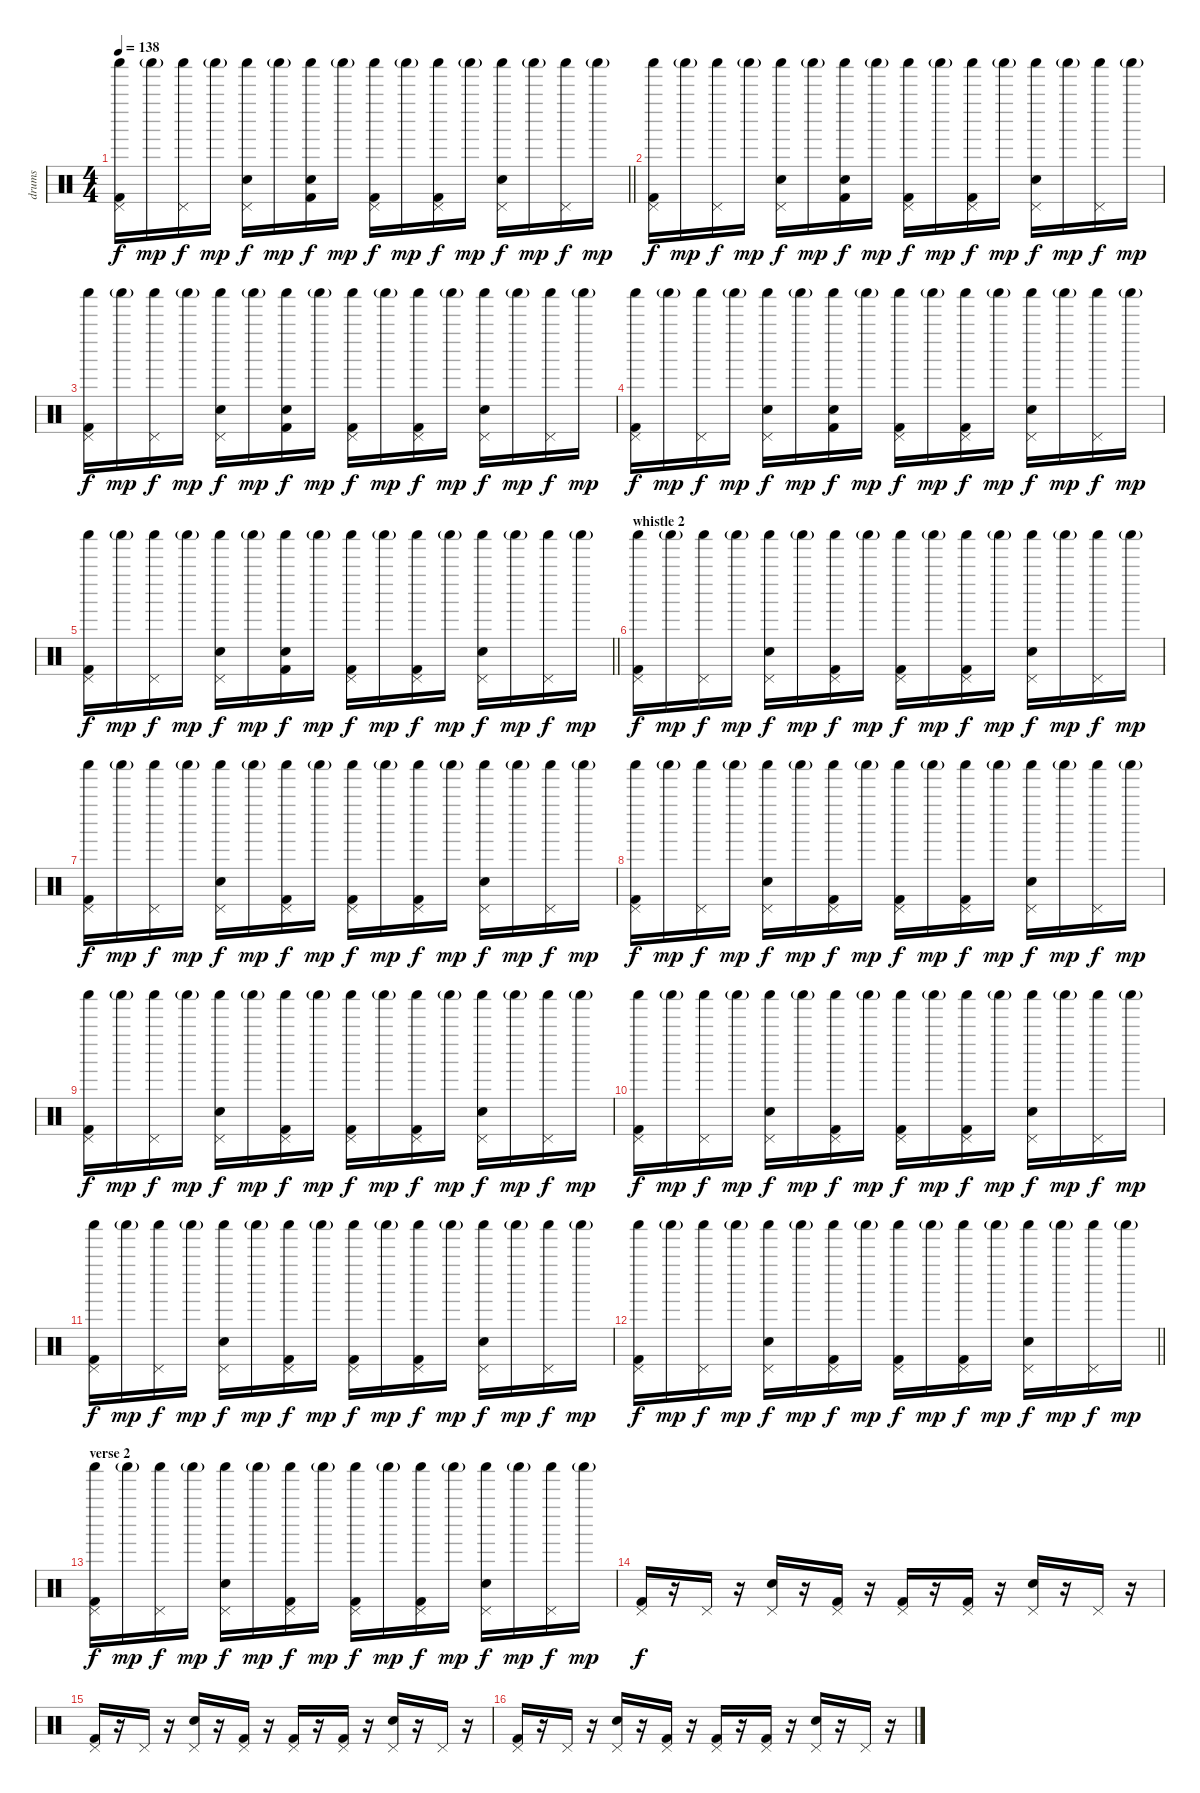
\track ("drums" "drums") {instrument percussion}
\staff {score}
\articulation defaults
\ts (4 4)
\tempo 138
\clef neutral
\barLineRight lightlight
\ks c
("Kick (hit) 2" "Pedal Hi-Hat (hit)" "Shaker (hit)").16{dy f} "Shaker (hit)"{g}.16{dy mp} ("Pedal Hi-Hat (hit)" "Shaker (hit)").16{dy f} "Shaker (hit)"{g}.16{dy mp} ("Electric Snare (hit)" "Pedal Hi-Hat (hit)" "Shaker (hit)").16{dy f} "Shaker (hit)"{g}.16{dy mp} ("Kick (hit) 2" "Snare (hit)" "Shaker (hit)").16{dy f} "Shaker (hit)"{g}.16{dy mp} ("Kick (hit) 2" "Pedal Hi-Hat (hit)" "Shaker (hit)").16{dy f} "Shaker (hit)"{g}.16{dy mp} ("Kick (hit) 2" "Pedal Hi-Hat (hit)" "Shaker (hit)").16{dy f} "Shaker (hit)"{g}.16{dy mp} ("Electric Snare (hit)" "Pedal Hi-Hat (hit)" "Shaker (hit)").16{dy f} "Shaker (hit)"{g}.16{dy mp} ("Pedal Hi-Hat (hit)" "Shaker (hit)").16{dy f} "Shaker (hit)"{g}.16{dy mp} |
("Kick (hit) 2" "Pedal Hi-Hat (hit)" "Shaker (hit)").16{dy f} "Shaker (hit)"{g}.16{dy mp} ("Pedal Hi-Hat (hit)" "Shaker (hit)").16{dy f} "Shaker (hit)"{g}.16{dy mp} ("Electric Snare (hit)" "Pedal Hi-Hat (hit)" "Shaker (hit)").16{dy f} "Shaker (hit)"{g}.16{dy mp} ("Kick (hit) 2" "Snare (hit)" "Shaker (hit)").16{dy f} "Shaker (hit)"{g}.16{dy mp} ("Kick (hit) 2" "Pedal Hi-Hat (hit)" "Shaker (hit)").16{dy f} "Shaker (hit)"{g}.16{dy mp} ("Kick (hit) 2" "Pedal Hi-Hat (hit)" "Shaker (hit)").16{dy f} "Shaker (hit)"{g}.16{dy mp} ("Electric Snare (hit)" "Pedal Hi-Hat (hit)" "Shaker (hit)").16{dy f} "Shaker (hit)"{g}.16{dy mp} ("Pedal Hi-Hat (hit)" "Shaker (hit)").16{dy f} "Shaker (hit)"{g}.16{dy mp} |
("Kick (hit) 2" "Pedal Hi-Hat (hit)" "Shaker (hit)").16{dy f} "Shaker (hit)"{g}.16{dy mp} ("Pedal Hi-Hat (hit)" "Shaker (hit)").16{dy f} "Shaker (hit)"{g}.16{dy mp} ("Electric Snare (hit)" "Pedal Hi-Hat (hit)" "Shaker (hit)").16{dy f} "Shaker (hit)"{g}.16{dy mp} ("Kick (hit) 2" "Snare (hit)" "Shaker (hit)").16{dy f} "Shaker (hit)"{g}.16{dy mp} ("Kick (hit) 2" "Pedal Hi-Hat (hit)" "Shaker (hit)").16{dy f} "Shaker (hit)"{g}.16{dy mp} ("Kick (hit) 2" "Pedal Hi-Hat (hit)" "Shaker (hit)").16{dy f} "Shaker (hit)"{g}.16{dy mp} ("Electric Snare (hit)" "Pedal Hi-Hat (hit)" "Shaker (hit)").16{dy f} "Shaker (hit)"{g}.16{dy mp} ("Pedal Hi-Hat (hit)" "Shaker (hit)").16{dy f} "Shaker (hit)"{g}.16{dy mp} |
("Kick (hit) 2" "Pedal Hi-Hat (hit)" "Shaker (hit)").16{dy f} "Shaker (hit)"{g}.16{dy mp} ("Pedal Hi-Hat (hit)" "Shaker (hit)").16{dy f} "Shaker (hit)"{g}.16{dy mp} ("Electric Snare (hit)" "Pedal Hi-Hat (hit)" "Shaker (hit)").16{dy f} "Shaker (hit)"{g}.16{dy mp} ("Kick (hit) 2" "Snare (hit)" "Shaker (hit)").16{dy f} "Shaker (hit)"{g}.16{dy mp} ("Kick (hit) 2" "Pedal Hi-Hat (hit)" "Shaker (hit)").16{dy f} "Shaker (hit)"{g}.16{dy mp} ("Kick (hit) 2" "Pedal Hi-Hat (hit)" "Shaker (hit)").16{dy f} "Shaker (hit)"{g}.16{dy mp} ("Electric Snare (hit)" "Pedal Hi-Hat (hit)" "Shaker (hit)").16{dy f} "Shaker (hit)"{g}.16{dy mp} ("Pedal Hi-Hat (hit)" "Shaker (hit)").16{dy f} "Shaker (hit)"{g}.16{dy mp} |
\barLineRight lightlight
("Kick (hit) 2" "Pedal Hi-Hat (hit)" "Shaker (hit)").16{dy f} "Shaker (hit)"{g}.16{dy mp} ("Pedal Hi-Hat (hit)" "Shaker (hit)").16{dy f} "Shaker (hit)"{g}.16{dy mp} ("Electric Snare (hit)" "Pedal Hi-Hat (hit)" "Shaker (hit)").16{dy f} "Shaker (hit)"{g}.16{dy mp} ("Kick (hit) 2" "Snare (hit)" "Shaker (hit)").16{dy f} "Shaker (hit)"{g}.16{dy mp} ("Kick (hit) 2" "Pedal Hi-Hat (hit)" "Shaker (hit)").16{dy f} "Shaker (hit)"{g}.16{dy mp} ("Kick (hit) 2" "Pedal Hi-Hat (hit)" "Shaker (hit)").16{dy f} "Shaker (hit)"{g}.16{dy mp} ("Electric Snare (hit)" "Pedal Hi-Hat (hit)" "Shaker (hit)").16{dy f} "Shaker (hit)"{g}.16{dy mp} ("Pedal Hi-Hat (hit)" "Shaker (hit)").16{dy f} "Shaker (hit)"{g}.16{dy mp} |
\section ("" "whistle 2")
("Kick (hit) 2" "Pedal Hi-Hat (hit)" "Shaker (hit)").16{dy f} "Shaker (hit)"{g}.16{dy mp} ("Pedal Hi-Hat (hit)" "Shaker (hit)").16{dy f} "Shaker (hit)"{g}.16{dy mp} ("Electric Snare (hit)" "Pedal Hi-Hat (hit)" "Shaker (hit)").16{dy f} "Shaker (hit)"{g}.16{dy mp} ("Kick (hit) 2" "Pedal Hi-Hat (hit)" "Shaker (hit)").16{dy f} "Shaker (hit)"{g}.16{dy mp} ("Kick (hit) 2" "Pedal Hi-Hat (hit)" "Shaker (hit)").16{dy f} "Shaker (hit)"{g}.16{dy mp} ("Kick (hit) 2" "Pedal Hi-Hat (hit)" "Shaker (hit)").16{dy f} "Shaker (hit)"{g}.16{dy mp} ("Electric Snare (hit)" "Pedal Hi-Hat (hit)" "Shaker (hit)").16{dy f} "Shaker (hit)"{g}.16{dy mp} ("Pedal Hi-Hat (hit)" "Shaker (hit)").16{dy f} "Shaker (hit)"{g}.16{dy mp} |
("Kick (hit) 2" "Pedal Hi-Hat (hit)" "Shaker (hit)").16{dy f} "Shaker (hit)"{g}.16{dy mp} ("Pedal Hi-Hat (hit)" "Shaker (hit)").16{dy f} "Shaker (hit)"{g}.16{dy mp} ("Electric Snare (hit)" "Pedal Hi-Hat (hit)" "Shaker (hit)").16{dy f} "Shaker (hit)"{g}.16{dy mp} ("Kick (hit) 2" "Pedal Hi-Hat (hit)" "Shaker (hit)").16{dy f} "Shaker (hit)"{g}.16{dy mp} ("Kick (hit) 2" "Pedal Hi-Hat (hit)" "Shaker (hit)").16{dy f} "Shaker (hit)"{g}.16{dy mp} ("Kick (hit) 2" "Pedal Hi-Hat (hit)" "Shaker (hit)").16{dy f} "Shaker (hit)"{g}.16{dy mp} ("Electric Snare (hit)" "Pedal Hi-Hat (hit)" "Shaker (hit)").16{dy f} "Shaker (hit)"{g}.16{dy mp} ("Pedal Hi-Hat (hit)" "Shaker (hit)").16{dy f} "Shaker (hit)"{g}.16{dy mp} |
("Kick (hit) 2" "Pedal Hi-Hat (hit)" "Shaker (hit)").16{dy f} "Shaker (hit)"{g}.16{dy mp} ("Pedal Hi-Hat (hit)" "Shaker (hit)").16{dy f} "Shaker (hit)"{g}.16{dy mp} ("Electric Snare (hit)" "Pedal Hi-Hat (hit)" "Shaker (hit)").16{dy f} "Shaker (hit)"{g}.16{dy mp} ("Kick (hit) 2" "Pedal Hi-Hat (hit)" "Shaker (hit)").16{dy f} "Shaker (hit)"{g}.16{dy mp} ("Kick (hit) 2" "Pedal Hi-Hat (hit)" "Shaker (hit)").16{dy f} "Shaker (hit)"{g}.16{dy mp} ("Kick (hit) 2" "Pedal Hi-Hat (hit)" "Shaker (hit)").16{dy f} "Shaker (hit)"{g}.16{dy mp} ("Electric Snare (hit)" "Pedal Hi-Hat (hit)" "Shaker (hit)").16{dy f} "Shaker (hit)"{g}.16{dy mp} ("Pedal Hi-Hat (hit)" "Shaker (hit)").16{dy f} "Shaker (hit)"{g}.16{dy mp} |
("Kick (hit) 2" "Pedal Hi-Hat (hit)" "Shaker (hit)").16{dy f} "Shaker (hit)"{g}.16{dy mp} ("Pedal Hi-Hat (hit)" "Shaker (hit)").16{dy f} "Shaker (hit)"{g}.16{dy mp} ("Electric Snare (hit)" "Pedal Hi-Hat (hit)" "Shaker (hit)").16{dy f} "Shaker (hit)"{g}.16{dy mp} ("Kick (hit) 2" "Pedal Hi-Hat (hit)" "Shaker (hit)").16{dy f} "Shaker (hit)"{g}.16{dy mp} ("Kick (hit) 2" "Pedal Hi-Hat (hit)" "Shaker (hit)").16{dy f} "Shaker (hit)"{g}.16{dy mp} ("Kick (hit) 2" "Pedal Hi-Hat (hit)" "Shaker (hit)").16{dy f} "Shaker (hit)"{g}.16{dy mp} ("Electric Snare (hit)" "Pedal Hi-Hat (hit)" "Shaker (hit)").16{dy f} "Shaker (hit)"{g}.16{dy mp} ("Pedal Hi-Hat (hit)" "Shaker (hit)").16{dy f} "Shaker (hit)"{g}.16{dy mp} |
("Kick (hit) 2" "Pedal Hi-Hat (hit)" "Shaker (hit)").16{dy f} "Shaker (hit)"{g}.16{dy mp} ("Pedal Hi-Hat (hit)" "Shaker (hit)").16{dy f} "Shaker (hit)"{g}.16{dy mp} ("Electric Snare (hit)" "Pedal Hi-Hat (hit)" "Shaker (hit)").16{dy f} "Shaker (hit)"{g}.16{dy mp} ("Kick (hit) 2" "Pedal Hi-Hat (hit)" "Shaker (hit)").16{dy f} "Shaker (hit)"{g}.16{dy mp} ("Kick (hit) 2" "Pedal Hi-Hat (hit)" "Shaker (hit)").16{dy f} "Shaker (hit)"{g}.16{dy mp} ("Kick (hit) 2" "Pedal Hi-Hat (hit)" "Shaker (hit)").16{dy f} "Shaker (hit)"{g}.16{dy mp} ("Electric Snare (hit)" "Pedal Hi-Hat (hit)" "Shaker (hit)").16{dy f} "Shaker (hit)"{g}.16{dy mp} ("Pedal Hi-Hat (hit)" "Shaker (hit)").16{dy f} "Shaker (hit)"{g}.16{dy mp} |
("Kick (hit) 2" "Pedal Hi-Hat (hit)" "Shaker (hit)").16{dy f} "Shaker (hit)"{g}.16{dy mp} ("Pedal Hi-Hat (hit)" "Shaker (hit)").16{dy f} "Shaker (hit)"{g}.16{dy mp} ("Electric Snare (hit)" "Pedal Hi-Hat (hit)" "Shaker (hit)").16{dy f} "Shaker (hit)"{g}.16{dy mp} ("Kick (hit) 2" "Pedal Hi-Hat (hit)" "Shaker (hit)").16{dy f} "Shaker (hit)"{g}.16{dy mp} ("Kick (hit) 2" "Pedal Hi-Hat (hit)" "Shaker (hit)").16{dy f} "Shaker (hit)"{g}.16{dy mp} ("Kick (hit) 2" "Pedal Hi-Hat (hit)" "Shaker (hit)").16{dy f} "Shaker (hit)"{g}.16{dy mp} ("Electric Snare (hit)" "Pedal Hi-Hat (hit)" "Shaker (hit)").16{dy f} "Shaker (hit)"{g}.16{dy mp} ("Pedal Hi-Hat (hit)" "Shaker (hit)").16{dy f} "Shaker (hit)"{g}.16{dy mp} |
\barLineRight lightlight
("Kick (hit) 2" "Pedal Hi-Hat (hit)" "Shaker (hit)").16{dy f} "Shaker (hit)"{g}.16{dy mp} ("Pedal Hi-Hat (hit)" "Shaker (hit)").16{dy f} "Shaker (hit)"{g}.16{dy mp} ("Electric Snare (hit)" "Pedal Hi-Hat (hit)" "Shaker (hit)").16{dy f} "Shaker (hit)"{g}.16{dy mp} ("Kick (hit) 2" "Pedal Hi-Hat (hit)" "Shaker (hit)").16{dy f} "Shaker (hit)"{g}.16{dy mp} ("Kick (hit) 2" "Pedal Hi-Hat (hit)" "Shaker (hit)").16{dy f} "Shaker (hit)"{g}.16{dy mp} ("Kick (hit) 2" "Pedal Hi-Hat (hit)" "Shaker (hit)").16{dy f} "Shaker (hit)"{g}.16{dy mp} ("Electric Snare (hit)" "Pedal Hi-Hat (hit)" "Shaker (hit)").16{dy f} "Shaker (hit)"{g}.16{dy mp} ("Pedal Hi-Hat (hit)" "Shaker (hit)").16{dy f} "Shaker (hit)"{g}.16{dy mp} |
\section ("" "verse 2")
("Kick (hit) 2" "Pedal Hi-Hat (hit)" "Shaker (hit)").16{dy f} "Shaker (hit)"{g}.16{dy mp} ("Pedal Hi-Hat (hit)" "Shaker (hit)").16{dy f} "Shaker (hit)"{g}.16{dy mp} ("Electric Snare (hit)" "Pedal Hi-Hat (hit)" "Shaker (hit)").16{dy f} "Shaker (hit)"{g}.16{dy mp} ("Kick (hit) 2" "Pedal Hi-Hat (hit)" "Shaker (hit)").16{dy f} "Shaker (hit)"{g}.16{dy mp} ("Kick (hit) 2" "Pedal Hi-Hat (hit)" "Shaker (hit)").16{dy f} "Shaker (hit)"{g}.16{dy mp} ("Kick (hit) 2" "Pedal Hi-Hat (hit)" "Shaker (hit)").16{dy f} "Shaker (hit)"{g}.16{dy mp} ("Electric Snare (hit)" "Pedal Hi-Hat (hit)" "Shaker (hit)").16{dy f} "Shaker (hit)"{g}.16{dy mp} ("Pedal Hi-Hat (hit)" "Shaker (hit)").16{dy f} "Shaker (hit)"{g}.16{dy mp} |
("Kick (hit) 2" "Pedal Hi-Hat (hit)").16{dy f} r.16 "Pedal Hi-Hat (hit)".16 r.16 ("Electric Snare (hit)" "Pedal Hi-Hat (hit)").16 r.16 ("Kick (hit) 2" "Pedal Hi-Hat (hit)").16 r.16 ("Kick (hit) 2" "Pedal Hi-Hat (hit)").16 r.16 ("Kick (hit) 2" "Pedal Hi-Hat (hit)").16 r.16 ("Electric Snare (hit)" "Pedal Hi-Hat (hit)").16 r.16 "Pedal Hi-Hat (hit)".16 r.16 |
("Kick (hit) 2" "Pedal Hi-Hat (hit)").16 r.16 "Pedal Hi-Hat (hit)".16 r.16 ("Electric Snare (hit)" "Pedal Hi-Hat (hit)").16 r.16 ("Kick (hit) 2" "Pedal Hi-Hat (hit)").16 r.16 ("Kick (hit) 2" "Pedal Hi-Hat (hit)").16 r.16 ("Kick (hit) 2" "Pedal Hi-Hat (hit)").16 r.16 ("Electric Snare (hit)" "Pedal Hi-Hat (hit)").16 r.16 "Pedal Hi-Hat (hit)".16 r.16 |
("Kick (hit) 2" "Pedal Hi-Hat (hit)").16 r.16 "Pedal Hi-Hat (hit)".16 r.16 ("Electric Snare (hit)" "Pedal Hi-Hat (hit)").16 r.16 ("Kick (hit) 2" "Pedal Hi-Hat (hit)").16 r.16 ("Kick (hit) 2" "Pedal Hi-Hat (hit)").16 r.16 ("Kick (hit) 2" "Pedal Hi-Hat (hit)").16 r.16 ("Electric Snare (hit)" "Pedal Hi-Hat (hit)").16 r.16 "Pedal Hi-Hat (hit)".16 r.16
